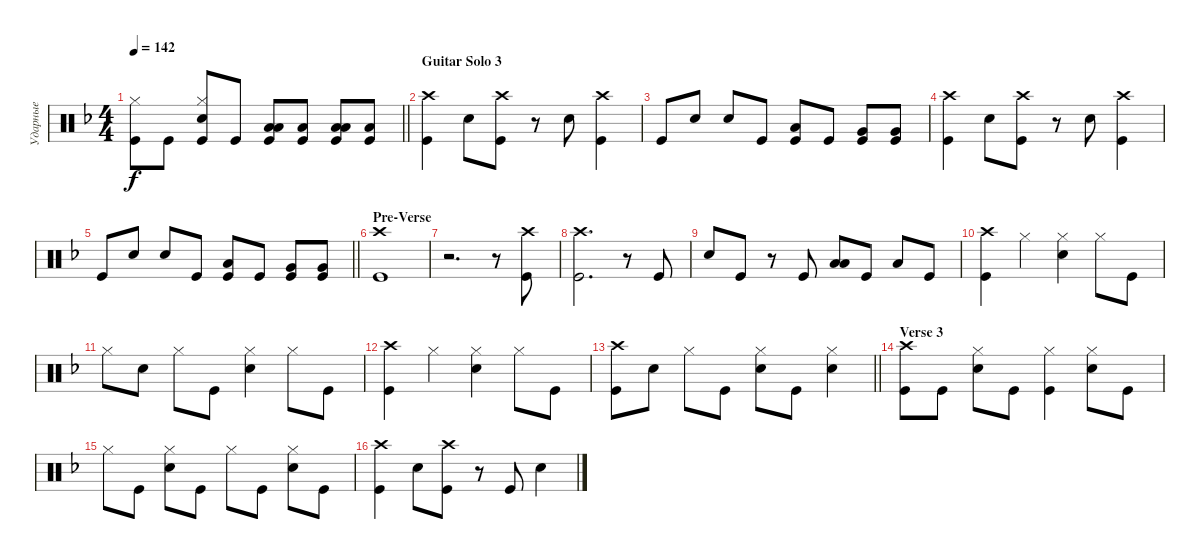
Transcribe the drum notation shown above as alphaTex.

\track ("Ударные" "Ударные") {instrument percussion}
\staff {score}
\articulation defaults
\ts (4 4)
\tempo 142
\clef neutral
\barLineRight lightlight
\ks dminor
("Kick (hit)" "Hi-Hat (closed)").8{dy f} "Kick (hit)".8 ("Kick (hit)" "Snare (hit) 2" "Hi-Hat (closed)").8 "Kick (hit)".8 ("Kick (hit)" "Low Tom (hit)" "Low Tom (hit)").8{bd 60} ("Kick (hit)" "Low Tom (hit)").8 ("Kick (hit)" "Low Tom (hit)" "Low Tom (hit)").8{bd 60} ("Kick (hit)" "Low Tom (hit)").8 |
\section ("" "Guitar Solo 3")
("Kick (hit)" "Crash high (hit)").4 "Snare (hit) 2".8 ("Kick (hit)" "Crash high (hit)").8 r.8 "Snare (hit) 2".8 ("Kick (hit)" "Crash high (hit)").4 |
"Kick (hit)".8 "Snare (hit) 2".8 "Snare (hit) 2".8 "Kick (hit)".8 ("Kick (hit)" "Low Tom (hit)").8 "Kick (hit)".8 ("Very Low Tom (hit)" "Kick (hit)").8 ("Very Low Tom (hit)" "Kick (hit)").8 |
("Kick (hit)" "Crash high (hit)").4 "Snare (hit) 2".8 ("Kick (hit)" "Crash high (hit)").8 r.8 "Snare (hit) 2".8 ("Kick (hit)" "Crash high (hit)").4 |
\barLineRight lightlight "Kick (hit)".8 "Snare (hit) 2".8 "Snare (hit) 2".8 "Kick (hit)".8
("Kick (hit)" "Low Tom (hit)").8 "Kick (hit)".8 ("Very Low Tom (hit)" "Kick (hit)").8 ("Very Low Tom (hit)" "Kick (hit)").8 |
\section ("" "Pre-Verse")
("Kick (hit)" "Crash high (hit)").1 |
r.2{d} r.8 ("Kick (hit)" "Crash high (hit)").8 |
("Kick (hit)" "Crash high (hit)").2{d} r.8 "Kick (hit)".8 |
"Snare (hit) 2".8 "Kick (hit)".8 r.8 "Kick (hit)".8 ("Low Tom (hit)" "Low Tom (hit)").8{bd 120} "Kick (hit)".8 "Low Tom (hit)".8 "Kick (hit)".8 |
("Kick (hit)" "Crash high (hit)").4 "Hi-Hat (closed)".4 ("Hi-Hat (closed)" "Snare (hit) 2").4 "Hi-Hat (closed)".8 "Kick (hit)".8 |
"Hi-Hat (closed)".8 "Snare (hit) 2".8 "Hi-Hat (closed)".8 "Kick (hit)".8 ("Snare (hit) 2" "Hi-Hat (closed)").4 "Hi-Hat (closed)".8 "Kick (hit)".8 |
("Kick (hit)" "Crash high (hit)").4 "Hi-Hat (closed)".4 ("Hi-Hat (closed)" "Snare (hit) 2").4 "Hi-Hat (closed)".8 "Kick (hit)".8 |
\barLineRight lightlight
("Kick (hit)" "Crash high (hit)").8 "Snare (hit) 2".8 "Hi-Hat (closed)".8 "Kick (hit)".8 ("Snare (hit) 2" "Hi-Hat (closed)").8 "Kick (hit)".8 ("Snare (hit) 2" "Hi-Hat (closed)").4 |
\section ("" "Verse 3")
("Kick (hit)" "Crash high (hit)").8 "Kick (hit)".8 ("Snare (hit) 2" "Hi-Hat (closed)").8 "Kick (hit)".8 ("Kick (hit)" "Hi-Hat (closed)").4 ("Snare (hit) 2" "Hi-Hat (closed)").8 "Kick (hit)".8 |
"Hi-Hat (closed)".8 "Kick (hit)".8 ("Snare (hit) 2" "Hi-Hat (closed)").8 "Kick (hit)".8 "Hi-Hat (closed)".8 "Kick (hit)".8 ("Snare (hit) 2" "Hi-Hat (closed)").8 "Kick (hit)".8 |
("Kick (hit)" "Crash high (hit)").4 "Snare (hit) 2".8 ("Kick (hit)" "Crash high (hit)").8 r.8 "Kick (hit)".8 "Snare (hit) 2".4
